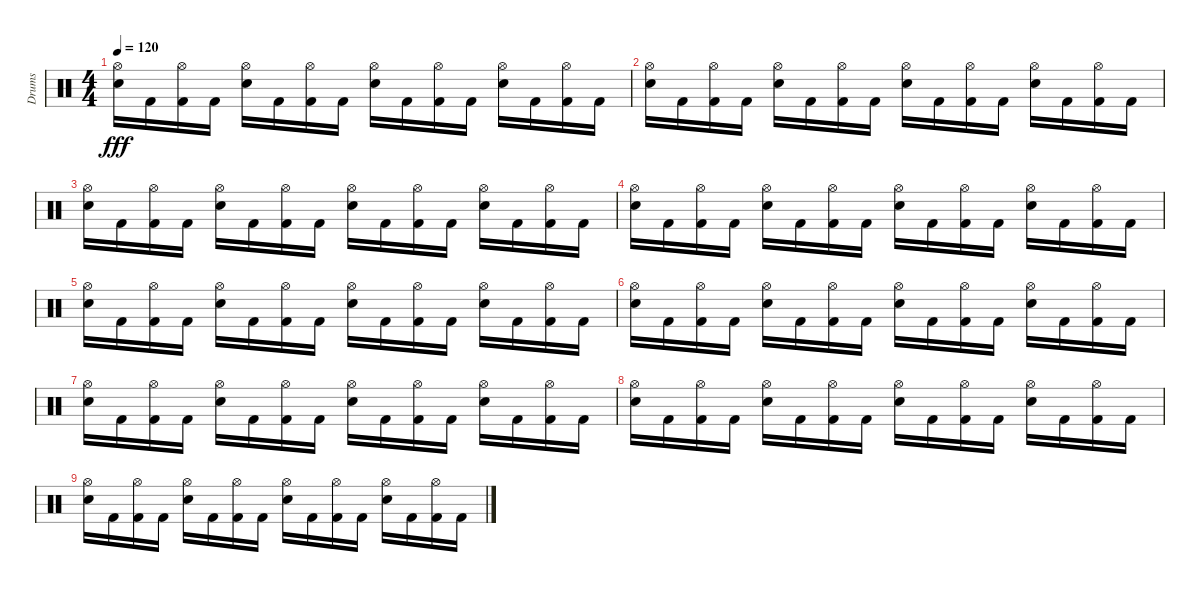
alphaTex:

\track ("Drums" "Drums") {instrument percussion}
\staff {score}
\articulation defaults
\ts (4 4)
\tempo 120
\clef neutral
\ks c
("Hi-Hat (open)" "Electric Snare (hit)").16{dy fff} "Kick (hit) 2".16 ("Hi-Hat (open)" "Kick (hit) 2").16 "Kick (hit) 2".16 ("Hi-Hat (open)" "Electric Snare (hit)").16 "Kick (hit) 2".16 ("Hi-Hat (open)" "Kick (hit) 2").16 "Kick (hit) 2".16 ("Hi-Hat (open)" "Electric Snare (hit)").16 "Kick (hit) 2".16 ("Hi-Hat (open)" "Kick (hit) 2").16 "Kick (hit) 2".16 ("Hi-Hat (open)" "Electric Snare (hit)").16 "Kick (hit) 2".16 ("Hi-Hat (open)" "Kick (hit) 2").16 "Kick (hit) 2".16 |
("Hi-Hat (open)" "Electric Snare (hit)").16 "Kick (hit) 2".16 ("Hi-Hat (open)" "Kick (hit) 2").16 "Kick (hit) 2".16 ("Hi-Hat (open)" "Electric Snare (hit)").16 "Kick (hit) 2".16 ("Hi-Hat (open)" "Kick (hit) 2").16 "Kick (hit) 2".16 ("Hi-Hat (open)" "Electric Snare (hit)").16 "Kick (hit) 2".16 ("Hi-Hat (open)" "Kick (hit) 2").16 "Kick (hit) 2".16 ("Hi-Hat (open)" "Electric Snare (hit)").16 "Kick (hit) 2".16 ("Hi-Hat (open)" "Kick (hit) 2").16 "Kick (hit) 2".16 |
("Hi-Hat (open)" "Electric Snare (hit)").16 "Kick (hit) 2".16 ("Hi-Hat (open)" "Kick (hit) 2").16 "Kick (hit) 2".16 ("Hi-Hat (open)" "Electric Snare (hit)").16 "Kick (hit) 2".16 ("Hi-Hat (open)" "Kick (hit) 2").16 "Kick (hit) 2".16 ("Hi-Hat (open)" "Electric Snare (hit)").16 "Kick (hit) 2".16 ("Hi-Hat (open)" "Kick (hit) 2").16 "Kick (hit) 2".16 ("Hi-Hat (open)" "Electric Snare (hit)").16 "Kick (hit) 2".16 ("Hi-Hat (open)" "Kick (hit) 2").16 "Kick (hit) 2".16 |
("Hi-Hat (open)" "Electric Snare (hit)").16 "Kick (hit) 2".16 ("Hi-Hat (open)" "Kick (hit) 2").16 "Kick (hit) 2".16 ("Hi-Hat (open)" "Electric Snare (hit)").16 "Kick (hit) 2".16 ("Hi-Hat (open)" "Kick (hit) 2").16 "Kick (hit) 2".16 ("Hi-Hat (open)" "Electric Snare (hit)").16 "Kick (hit) 2".16 ("Hi-Hat (open)" "Kick (hit) 2").16 "Kick (hit) 2".16 ("Hi-Hat (open)" "Electric Snare (hit)").16 "Kick (hit) 2".16 ("Hi-Hat (open)" "Kick (hit) 2").16 "Kick (hit) 2".16 |
("Hi-Hat (open)" "Electric Snare (hit)").16 "Kick (hit) 2".16 ("Hi-Hat (open)" "Kick (hit) 2").16 "Kick (hit) 2".16 ("Hi-Hat (open)" "Electric Snare (hit)").16 "Kick (hit) 2".16 ("Hi-Hat (open)" "Kick (hit) 2").16 "Kick (hit) 2".16 ("Hi-Hat (open)" "Electric Snare (hit)").16 "Kick (hit) 2".16 ("Hi-Hat (open)" "Kick (hit) 2").16 "Kick (hit) 2".16 ("Hi-Hat (open)" "Electric Snare (hit)").16 "Kick (hit) 2".16 ("Hi-Hat (open)" "Kick (hit) 2").16 "Kick (hit) 2".16 |
("Hi-Hat (open)" "Electric Snare (hit)").16 "Kick (hit) 2".16 ("Hi-Hat (open)" "Kick (hit) 2").16 "Kick (hit) 2".16 ("Hi-Hat (open)" "Electric Snare (hit)").16 "Kick (hit) 2".16 ("Hi-Hat (open)" "Kick (hit) 2").16 "Kick (hit) 2".16 ("Hi-Hat (open)" "Electric Snare (hit)").16 "Kick (hit) 2".16 ("Hi-Hat (open)" "Kick (hit) 2").16 "Kick (hit) 2".16 ("Hi-Hat (open)" "Electric Snare (hit)").16 "Kick (hit) 2".16 ("Hi-Hat (open)" "Kick (hit) 2").16 "Kick (hit) 2".16 |
("Hi-Hat (open)" "Electric Snare (hit)").16 "Kick (hit) 2".16 ("Hi-Hat (open)" "Kick (hit) 2").16 "Kick (hit) 2".16 ("Hi-Hat (open)" "Electric Snare (hit)").16 "Kick (hit) 2".16 ("Hi-Hat (open)" "Kick (hit) 2").16 "Kick (hit) 2".16 ("Hi-Hat (open)" "Electric Snare (hit)").16 "Kick (hit) 2".16 ("Hi-Hat (open)" "Kick (hit) 2").16 "Kick (hit) 2".16 ("Hi-Hat (open)" "Electric Snare (hit)").16 "Kick (hit) 2".16 ("Hi-Hat (open)" "Kick (hit) 2").16 "Kick (hit) 2".16 |
("Hi-Hat (open)" "Electric Snare (hit)").16 "Kick (hit) 2".16 ("Hi-Hat (open)" "Kick (hit) 2").16 "Kick (hit) 2".16 ("Hi-Hat (open)" "Electric Snare (hit)").16 "Kick (hit) 2".16 ("Hi-Hat (open)" "Kick (hit) 2").16 "Kick (hit) 2".16 ("Hi-Hat (open)" "Electric Snare (hit)").16 "Kick (hit) 2".16 ("Hi-Hat (open)" "Kick (hit) 2").16 "Kick (hit) 2".16 ("Hi-Hat (open)" "Electric Snare (hit)").16 "Kick (hit) 2".16 ("Hi-Hat (open)" "Kick (hit) 2").16 "Kick (hit) 2".16 |
("Hi-Hat (open)" "Electric Snare (hit)").16 "Kick (hit) 2".16 ("Hi-Hat (open)" "Kick (hit) 2").16 "Kick (hit) 2".16 ("Hi-Hat (open)" "Electric Snare (hit)").16 "Kick (hit) 2".16 ("Hi-Hat (open)" "Kick (hit) 2").16 "Kick (hit) 2".16 ("Hi-Hat (open)" "Electric Snare (hit)").16 "Kick (hit) 2".16 ("Hi-Hat (open)" "Kick (hit) 2").16 "Kick (hit) 2".16 ("Hi-Hat (open)" "Electric Snare (hit)").16 "Kick (hit) 2".16 ("Hi-Hat (open)" "Kick (hit) 2").16 "Kick (hit) 2".16
